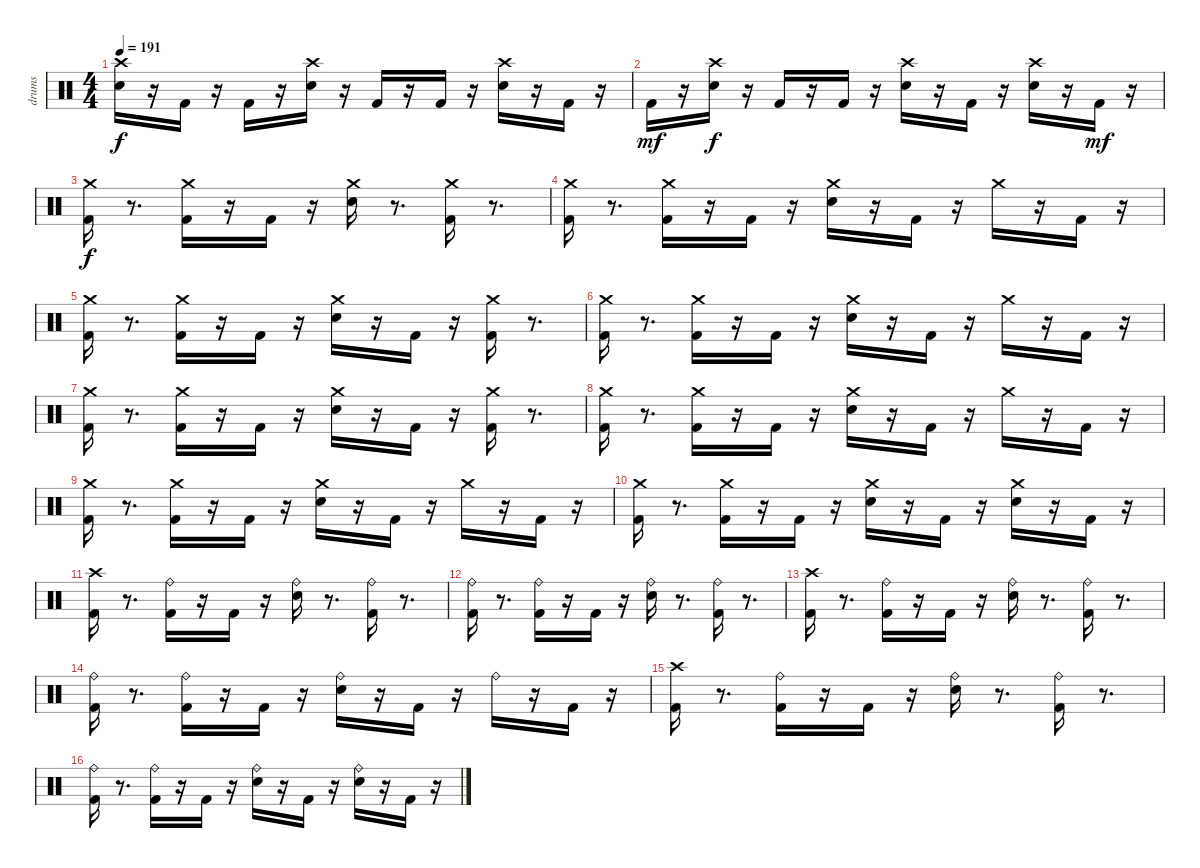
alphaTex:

\track ("drums" "drums") {instrument percussion}
\staff {score}
\articulation defaults
\ts (4 4)
\tempo 191
\clef neutral
\ks c
("Snare (hit) 2" "Crash high (hit)").16{dy f} r.16 "Kick (hit) 2".16 r.16 "Kick (hit) 2".16 r.16 ("Snare (hit) 2" "Crash high (hit)").16 r.16 "Kick (hit) 2".16 r.16 "Kick (hit) 2".16 r.16 ("Snare (hit) 2" "Crash high (hit)").16 r.16 "Kick (hit) 2".16 r.16 |
"Kick (hit) 2".16{dy mf} r.16 ("Snare (hit) 2" "Crash high (hit)").16{dy f} r.16 "Kick (hit) 2".16 r.16 "Kick (hit) 2".16 r.16 ("Snare (hit) 2" "Crash high (hit)").16 r.16 "Kick (hit) 2".16 r.16 ("Snare (hit) 2" "Crash high (hit)").16 r.16 "Kick (hit) 2".16{dy mf} r.16 |
("Kick (hit) 2" "Crash medium (hit)").16{dy f} r.8{d} ("Kick (hit) 2" "Crash medium (hit)").16 r.16 "Kick (hit) 2".16 r.16 ("Snare (hit) 2" "Crash medium (hit)").16 r.8{d} ("Kick (hit) 2" "Crash medium (hit)").16 r.8{d} |
("Kick (hit) 2" "Crash medium (hit)").16 r.8{d} ("Kick (hit) 2" "Crash medium (hit)").16 r.16 "Kick (hit) 2".16 r.16 ("Snare (hit) 2" "Crash medium (hit)").16 r.16 "Kick (hit) 2".16 r.16 "Crash medium (hit)".16 r.16 "Kick (hit) 2".16 r.16 |
("Kick (hit) 2" "Crash medium (hit)").16 r.8{d} ("Kick (hit) 2" "Crash medium (hit)").16 r.16 "Kick (hit) 2".16 r.16 ("Snare (hit) 2" "Crash medium (hit)").16 r.16 "Kick (hit) 2".16 r.16 ("Kick (hit) 2" "Crash medium (hit)").16 r.8{d} |
("Kick (hit) 2" "Crash medium (hit)").16 r.8{d} ("Kick (hit) 2" "Crash medium (hit)").16 r.16 "Kick (hit) 2".16 r.16 ("Snare (hit) 2" "Crash medium (hit)").16 r.16 "Kick (hit) 2".16 r.16 "Crash medium (hit)".16 r.16 "Kick (hit) 2".16 r.16 |
("Kick (hit) 2" "Crash medium (hit)").16 r.8{d} ("Kick (hit) 2" "Crash medium (hit)").16 r.16 "Kick (hit) 2".16 r.16 ("Snare (hit) 2" "Crash medium (hit)").16 r.16 "Kick (hit) 2".16 r.16 ("Kick (hit) 2" "Crash medium (hit)").16 r.8{d} |
("Kick (hit) 2" "Crash medium (hit)").16 r.8{d} ("Kick (hit) 2" "Crash medium (hit)").16 r.16 "Kick (hit) 2".16 r.16 ("Snare (hit) 2" "Crash medium (hit)").16 r.16 "Kick (hit) 2".16 r.16 "Crash medium (hit)".16 r.16 "Kick (hit) 2".16 r.16 |
("Kick (hit) 2" "Crash medium (hit)").16 r.8{d} ("Kick (hit) 2" "Crash medium (hit)").16 r.16 "Kick (hit) 2".16 r.16 ("Snare (hit) 2" "Crash medium (hit)").16 r.16 "Kick (hit) 2".16 r.16 "Crash medium (hit)".16 r.16 "Kick (hit) 2".16 r.16 |
("Kick (hit) 2" "Crash medium (hit)").16 r.8{d} ("Kick (hit) 2" "Crash medium (hit)").16 r.16 "Kick (hit) 2".16 r.16 ("Snare (hit) 2" "Crash medium (hit)").16 r.16 "Kick (hit) 2".16 r.16 ("Snare (hit) 2" "Crash medium (hit)").16 r.16 "Kick (hit) 2".16 r.16 |
("Kick (hit) 2" "Crash high (hit)").16 r.8{d} ("Kick (hit) 2" "Ride (bell)").16 r.16 "Kick (hit) 2".16 r.16 ("Snare (hit) 2" "Ride (bell)").16 r.8{d} ("Kick (hit) 2" "Ride (bell)").16 r.8{d} |
("Kick (hit) 2" "Ride (bell)").16 r.8{d} ("Kick (hit) 2" "Ride (bell)").16 r.16 "Kick (hit) 2".16 r.16 ("Snare (hit) 2" "Ride (bell)").16 r.8{d} ("Kick (hit) 2" "Ride (bell)").16 r.8{d} |
("Kick (hit) 2" "Crash high (hit)").16 r.8{d} ("Kick (hit) 2" "Ride (bell)").16 r.16 "Kick (hit) 2".16 r.16 ("Snare (hit) 2" "Ride (bell)").16 r.8{d} ("Kick (hit) 2" "Ride (bell)").16 r.8{d} |
("Kick (hit) 2" "Ride (bell)").16 r.8{d} ("Kick (hit) 2" "Ride (bell)").16 r.16 "Kick (hit) 2".16 r.16 ("Snare (hit) 2" "Ride (bell)").16 r.16 "Kick (hit) 2".16 r.16 "Ride (bell)".16 r.16 "Kick (hit) 2".16 r.16 |
("Kick (hit) 2" "Crash high (hit)").16 r.8{d} ("Kick (hit) 2" "Ride (bell)").16 r.16 "Kick (hit) 2".16 r.16 ("Snare (hit) 2" "Ride (bell)").16 r.8{d} ("Kick (hit) 2" "Ride (bell)").16 r.8{d} |
("Kick (hit) 2" "Ride (bell)").16 r.8{d} ("Kick (hit) 2" "Ride (bell)").16 r.16 "Kick (hit) 2".16 r.16 ("Snare (hit) 2" "Ride (bell)").16 r.16 "Kick (hit) 2".16 r.16 ("Snare (hit) 2" "Ride (bell)").16 r.16 "Kick (hit) 2".16 r.16
